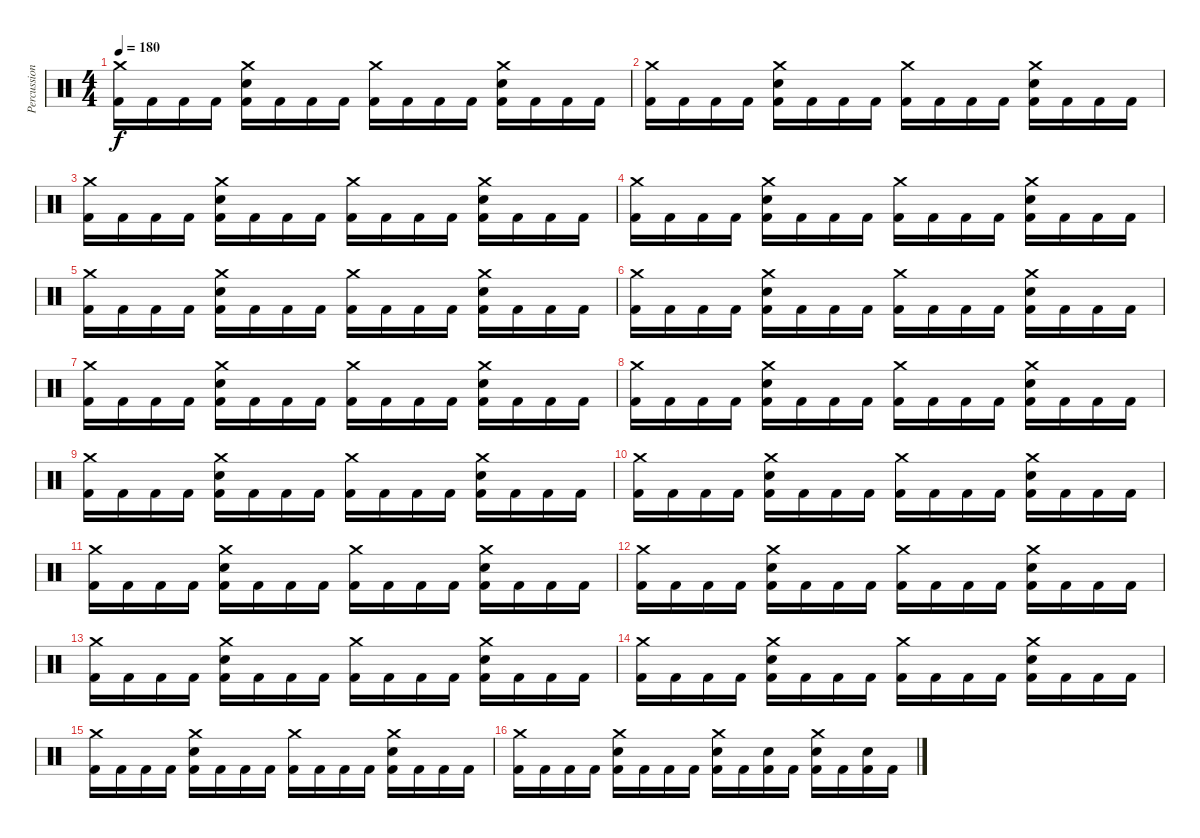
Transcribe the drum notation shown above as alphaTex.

\track ("Percussions" "Percussion") {instrument percussion}
\staff {score}
\articulation defaults
\ts (4 4)
\tempo 180
\clef neutral
\ks c
("Crash medium (hit)" "Kick (hit) 2").16{dy f} "Kick (hit) 2".16 "Kick (hit) 2".16 "Kick (hit) 2".16 ("Electric Snare (hit)" "Crash medium (hit)" "Kick (hit) 2").16 "Kick (hit) 2".16 "Kick (hit) 2".16 "Kick (hit) 2".16 ("Crash medium (hit)" "Kick (hit) 2").16 "Kick (hit) 2".16 "Kick (hit) 2".16 "Kick (hit) 2".16 ("Crash medium (hit)" "Electric Snare (hit)" "Kick (hit) 2").16 "Kick (hit) 2".16 "Kick (hit) 2".16 "Kick (hit) 2".16 |
("Crash medium (hit)" "Kick (hit) 2").16 "Kick (hit) 2".16 "Kick (hit) 2".16 "Kick (hit) 2".16 ("Electric Snare (hit)" "Crash medium (hit)" "Kick (hit) 2").16 "Kick (hit) 2".16 "Kick (hit) 2".16 "Kick (hit) 2".16 ("Crash medium (hit)" "Kick (hit) 2").16 "Kick (hit) 2".16 "Kick (hit) 2".16 "Kick (hit) 2".16 ("Crash medium (hit)" "Electric Snare (hit)" "Kick (hit) 2").16 "Kick (hit) 2".16 "Kick (hit) 2".16 "Kick (hit) 2".16 |
("Crash medium (hit)" "Kick (hit) 2").16 "Kick (hit) 2".16 "Kick (hit) 2".16 "Kick (hit) 2".16 ("Electric Snare (hit)" "Crash medium (hit)" "Kick (hit) 2").16 "Kick (hit) 2".16 "Kick (hit) 2".16 "Kick (hit) 2".16 ("Crash medium (hit)" "Kick (hit) 2").16 "Kick (hit) 2".16 "Kick (hit) 2".16 "Kick (hit) 2".16 ("Crash medium (hit)" "Electric Snare (hit)" "Kick (hit) 2").16 "Kick (hit) 2".16 "Kick (hit) 2".16 "Kick (hit) 2".16 |
("Crash medium (hit)" "Kick (hit) 2").16 "Kick (hit) 2".16 "Kick (hit) 2".16 "Kick (hit) 2".16 ("Electric Snare (hit)" "Crash medium (hit)" "Kick (hit) 2").16 "Kick (hit) 2".16 "Kick (hit) 2".16 "Kick (hit) 2".16 ("Crash medium (hit)" "Kick (hit) 2").16 "Kick (hit) 2".16 "Kick (hit) 2".16 "Kick (hit) 2".16 ("Crash medium (hit)" "Electric Snare (hit)" "Kick (hit) 2").16 "Kick (hit) 2".16 "Kick (hit) 2".16 "Kick (hit) 2".16 |
("Crash medium (hit)" "Kick (hit) 2").16 "Kick (hit) 2".16 "Kick (hit) 2".16 "Kick (hit) 2".16 ("Electric Snare (hit)" "Crash medium (hit)" "Kick (hit) 2").16 "Kick (hit) 2".16 "Kick (hit) 2".16 "Kick (hit) 2".16 ("Crash medium (hit)" "Kick (hit) 2").16 "Kick (hit) 2".16 "Kick (hit) 2".16 "Kick (hit) 2".16 ("Crash medium (hit)" "Electric Snare (hit)" "Kick (hit) 2").16 "Kick (hit) 2".16 "Kick (hit) 2".16 "Kick (hit) 2".16 |
("Crash medium (hit)" "Kick (hit) 2").16 "Kick (hit) 2".16 "Kick (hit) 2".16 "Kick (hit) 2".16 ("Electric Snare (hit)" "Crash medium (hit)" "Kick (hit) 2").16 "Kick (hit) 2".16 "Kick (hit) 2".16 "Kick (hit) 2".16 ("Crash medium (hit)" "Kick (hit) 2").16 "Kick (hit) 2".16 "Kick (hit) 2".16 "Kick (hit) 2".16 ("Crash medium (hit)" "Electric Snare (hit)" "Kick (hit) 2").16 "Kick (hit) 2".16 "Kick (hit) 2".16 "Kick (hit) 2".16 |
("Crash medium (hit)" "Kick (hit) 2").16 "Kick (hit) 2".16 "Kick (hit) 2".16 "Kick (hit) 2".16 ("Electric Snare (hit)" "Crash medium (hit)" "Kick (hit) 2").16 "Kick (hit) 2".16 "Kick (hit) 2".16 "Kick (hit) 2".16 ("Crash medium (hit)" "Kick (hit) 2").16 "Kick (hit) 2".16 "Kick (hit) 2".16 "Kick (hit) 2".16 ("Crash medium (hit)" "Electric Snare (hit)" "Kick (hit) 2").16 "Kick (hit) 2".16 "Kick (hit) 2".16 "Kick (hit) 2".16 |
("Crash medium (hit)" "Kick (hit) 2").16 "Kick (hit) 2".16 "Kick (hit) 2".16 "Kick (hit) 2".16 ("Electric Snare (hit)" "Crash medium (hit)" "Kick (hit) 2").16 "Kick (hit) 2".16 "Kick (hit) 2".16 "Kick (hit) 2".16 ("Crash medium (hit)" "Kick (hit) 2").16 "Kick (hit) 2".16 "Kick (hit) 2".16 "Kick (hit) 2".16 ("Crash medium (hit)" "Electric Snare (hit)" "Kick (hit) 2").16 "Kick (hit) 2".16 "Kick (hit) 2".16 "Kick (hit) 2".16 |
("Crash medium (hit)" "Kick (hit) 2").16 "Kick (hit) 2".16 "Kick (hit) 2".16 "Kick (hit) 2".16 ("Electric Snare (hit)" "Crash medium (hit)" "Kick (hit) 2").16 "Kick (hit) 2".16 "Kick (hit) 2".16 "Kick (hit) 2".16 ("Crash medium (hit)" "Kick (hit) 2").16 "Kick (hit) 2".16 "Kick (hit) 2".16 "Kick (hit) 2".16 ("Crash medium (hit)" "Electric Snare (hit)" "Kick (hit) 2").16 "Kick (hit) 2".16 "Kick (hit) 2".16 "Kick (hit) 2".16 |
("Crash medium (hit)" "Kick (hit) 2").16 "Kick (hit) 2".16 "Kick (hit) 2".16 "Kick (hit) 2".16 ("Electric Snare (hit)" "Crash medium (hit)" "Kick (hit) 2").16 "Kick (hit) 2".16 "Kick (hit) 2".16 "Kick (hit) 2".16 ("Crash medium (hit)" "Kick (hit) 2").16 "Kick (hit) 2".16 "Kick (hit) 2".16 "Kick (hit) 2".16 ("Crash medium (hit)" "Electric Snare (hit)" "Kick (hit) 2").16 "Kick (hit) 2".16 "Kick (hit) 2".16 "Kick (hit) 2".16 |
("Crash medium (hit)" "Kick (hit) 2").16 "Kick (hit) 2".16 "Kick (hit) 2".16 "Kick (hit) 2".16 ("Electric Snare (hit)" "Crash medium (hit)" "Kick (hit) 2").16 "Kick (hit) 2".16 "Kick (hit) 2".16 "Kick (hit) 2".16 ("Crash medium (hit)" "Kick (hit) 2").16 "Kick (hit) 2".16 "Kick (hit) 2".16 "Kick (hit) 2".16 ("Crash medium (hit)" "Electric Snare (hit)" "Kick (hit) 2").16 "Kick (hit) 2".16 "Kick (hit) 2".16 "Kick (hit) 2".16 |
("Crash medium (hit)" "Kick (hit) 2").16 "Kick (hit) 2".16 "Kick (hit) 2".16 "Kick (hit) 2".16 ("Electric Snare (hit)" "Crash medium (hit)" "Kick (hit) 2").16 "Kick (hit) 2".16 "Kick (hit) 2".16 "Kick (hit) 2".16 ("Crash medium (hit)" "Kick (hit) 2").16 "Kick (hit) 2".16 "Kick (hit) 2".16 "Kick (hit) 2".16 ("Crash medium (hit)" "Electric Snare (hit)" "Kick (hit) 2").16 "Kick (hit) 2".16 "Kick (hit) 2".16 "Kick (hit) 2".16 |
("Crash medium (hit)" "Kick (hit) 2").16 "Kick (hit) 2".16 "Kick (hit) 2".16 "Kick (hit) 2".16 ("Electric Snare (hit)" "Crash medium (hit)" "Kick (hit) 2").16 "Kick (hit) 2".16 "Kick (hit) 2".16 "Kick (hit) 2".16 ("Crash medium (hit)" "Kick (hit) 2").16 "Kick (hit) 2".16 "Kick (hit) 2".16 "Kick (hit) 2".16 ("Crash medium (hit)" "Electric Snare (hit)" "Kick (hit) 2").16 "Kick (hit) 2".16 "Kick (hit) 2".16 "Kick (hit) 2".16 |
("Crash medium (hit)" "Kick (hit) 2").16 "Kick (hit) 2".16 "Kick (hit) 2".16 "Kick (hit) 2".16 ("Electric Snare (hit)" "Crash medium (hit)" "Kick (hit) 2").16 "Kick (hit) 2".16 "Kick (hit) 2".16 "Kick (hit) 2".16 ("Crash medium (hit)" "Kick (hit) 2").16 "Kick (hit) 2".16 "Kick (hit) 2".16 "Kick (hit) 2".16 ("Crash medium (hit)" "Electric Snare (hit)" "Kick (hit) 2").16 "Kick (hit) 2".16 "Kick (hit) 2".16 "Kick (hit) 2".16 |
("Crash medium (hit)" "Kick (hit) 2").16 "Kick (hit) 2".16 "Kick (hit) 2".16 "Kick (hit) 2".16 ("Electric Snare (hit)" "Crash medium (hit)" "Kick (hit) 2").16 "Kick (hit) 2".16 "Kick (hit) 2".16 "Kick (hit) 2".16 ("Crash medium (hit)" "Kick (hit) 2").16 "Kick (hit) 2".16 "Kick (hit) 2".16 "Kick (hit) 2".16 ("Crash medium (hit)" "Electric Snare (hit)" "Kick (hit) 2").16 "Kick (hit) 2".16 "Kick (hit) 2".16 "Kick (hit) 2".16 |
("Crash medium (hit)" "Kick (hit) 2").16 "Kick (hit) 2".16 "Kick (hit) 2".16 "Kick (hit) 2".16 ("Electric Snare (hit)" "Crash medium (hit)" "Kick (hit) 2").16 "Kick (hit) 2".16 "Kick (hit) 2".16 "Kick (hit) 2".16 ("Electric Snare (hit)" "Crash medium (hit)" "Kick (hit) 2").16 "Kick (hit) 2".16 ("Electric Snare (hit)" "Kick (hit) 2").16 "Kick (hit) 2".16 ("Crash medium (hit)" "Electric Snare (hit)" "Kick (hit) 2").16 "Kick (hit) 2".16 ("Electric Snare (hit)" "Kick (hit) 2").16 "Kick (hit) 2".16
